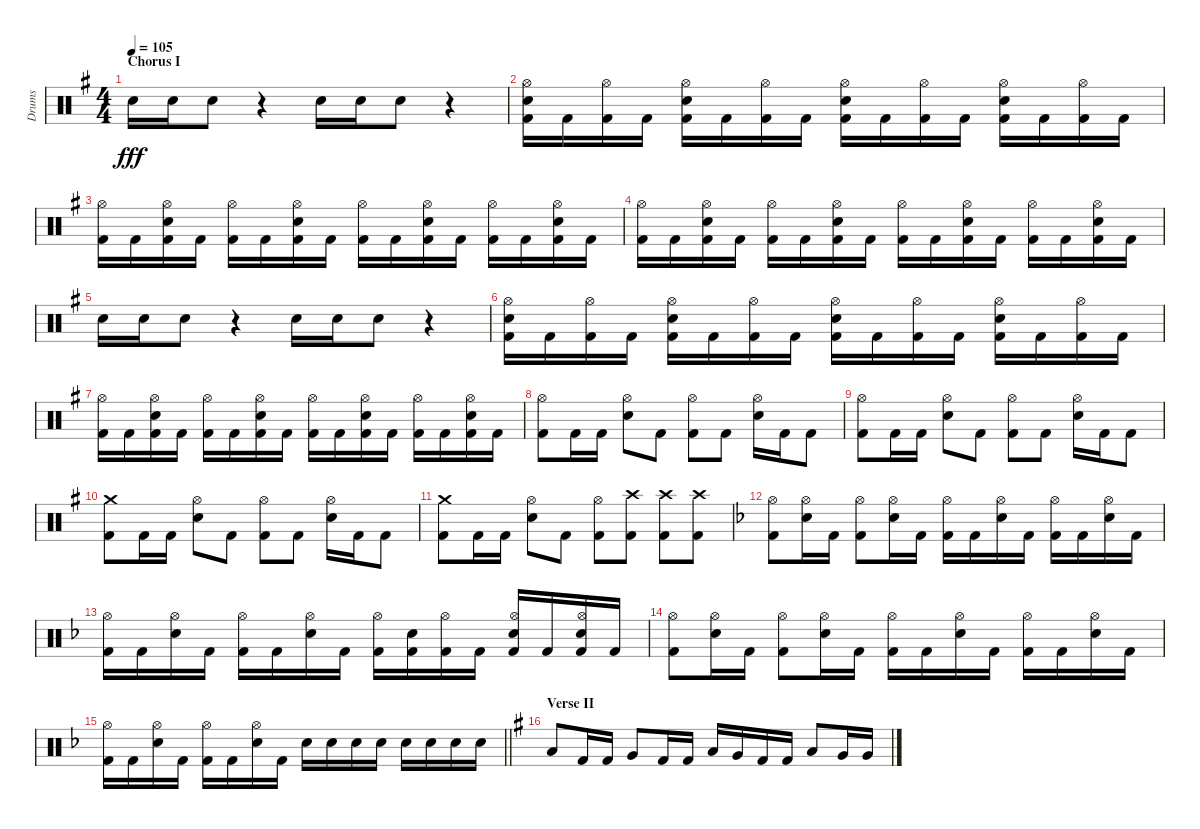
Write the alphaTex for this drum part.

\track ("Drums" "Drums") {instrument percussion}
\staff {score}
\articulation defaults
\ts (4 4)
\section ("" "Chorus I")
\tempo 105
\clef neutral
\ks eminor "Snare (hit) 2".16{dy fff} "Snare (hit) 2".16 "Snare (hit) 2".8
r.4 "Snare (hit) 2".16 "Snare (hit) 2".16 "Snare (hit) 2".8 r.4 |
("Hi-Hat (open)" "Snare (hit) 2" "Kick (hit) 2").16 "Kick (hit) 2".16 ("Hi-Hat (open)" "Kick (hit) 2").16 "Kick (hit) 2".16 ("Hi-Hat (open)" "Snare (hit) 2" "Kick (hit) 2").16 "Kick (hit) 2".16 ("Hi-Hat (open)" "Kick (hit) 2").16 "Kick (hit) 2".16 ("Hi-Hat (open)" "Snare (hit) 2" "Kick (hit) 2").16 "Kick (hit) 2".16 ("Hi-Hat (open)" "Kick (hit) 2").16 "Kick (hit) 2".16 ("Hi-Hat (open)" "Snare (hit) 2" "Kick (hit) 2").16 "Kick (hit) 2".16 ("Hi-Hat (open)" "Kick (hit) 2").16 "Kick (hit) 2".16 |
("Hi-Hat (open)" "Kick (hit) 2").16 "Kick (hit) 2".16 ("Hi-Hat (open)" "Snare (hit) 2" "Kick (hit) 2").16 "Kick (hit) 2".16 ("Hi-Hat (open)" "Kick (hit) 2").16 "Kick (hit) 2".16 ("Hi-Hat (open)" "Snare (hit) 2" "Kick (hit) 2").16 "Kick (hit) 2".16 ("Hi-Hat (open)" "Kick (hit) 2").16 "Kick (hit) 2".16 ("Hi-Hat (open)" "Snare (hit) 2" "Kick (hit) 2").16 "Kick (hit) 2".16 ("Hi-Hat (open)" "Kick (hit) 2").16 "Kick (hit) 2".16 ("Hi-Hat (open)" "Snare (hit) 2" "Kick (hit) 2").16 "Kick (hit) 2".16 |
("Hi-Hat (open)" "Kick (hit) 2").16 "Kick (hit) 2".16 ("Hi-Hat (open)" "Snare (hit) 2" "Kick (hit) 2").16 "Kick (hit) 2".16 ("Hi-Hat (open)" "Kick (hit) 2").16 "Kick (hit) 2".16 ("Hi-Hat (open)" "Snare (hit) 2" "Kick (hit) 2").16 "Kick (hit) 2".16 ("Hi-Hat (open)" "Kick (hit) 2").16 "Kick (hit) 2".16 ("Hi-Hat (open)" "Snare (hit) 2" "Kick (hit) 2").16 "Kick (hit) 2".16 ("Hi-Hat (open)" "Kick (hit) 2").16 "Kick (hit) 2".16 ("Hi-Hat (open)" "Snare (hit) 2" "Kick (hit) 2").16 "Kick (hit) 2".16 |
"Snare (hit) 2".16 "Snare (hit) 2".16 "Snare (hit) 2".8 r.4 "Snare (hit) 2".16 "Snare (hit) 2".16 "Snare (hit) 2".8 r.4 |
("Hi-Hat (open)" "Snare (hit) 2" "Kick (hit) 2").16 "Kick (hit) 2".16 ("Hi-Hat (open)" "Kick (hit) 2").16 "Kick (hit) 2".16 ("Hi-Hat (open)" "Snare (hit) 2" "Kick (hit) 2").16 "Kick (hit) 2".16 ("Hi-Hat (open)" "Kick (hit) 2").16 "Kick (hit) 2".16 ("Hi-Hat (open)" "Snare (hit) 2" "Kick (hit) 2").16 "Kick (hit) 2".16 ("Hi-Hat (open)" "Kick (hit) 2").16 "Kick (hit) 2".16 ("Hi-Hat (open)" "Snare (hit) 2" "Kick (hit) 2").16 "Kick (hit) 2".16 ("Hi-Hat (open)" "Kick (hit) 2").16 "Kick (hit) 2".16 |
("Hi-Hat (open)" "Kick (hit) 2").16 "Kick (hit) 2".16 ("Hi-Hat (open)" "Snare (hit) 2" "Kick (hit) 2").16 "Kick (hit) 2".16 ("Hi-Hat (open)" "Kick (hit) 2").16 "Kick (hit) 2".16 ("Hi-Hat (open)" "Snare (hit) 2" "Kick (hit) 2").16 "Kick (hit) 2".16 ("Hi-Hat (open)" "Kick (hit) 2").16 "Kick (hit) 2".16 ("Hi-Hat (open)" "Snare (hit) 2" "Kick (hit) 2").16 "Kick (hit) 2".16 ("Hi-Hat (open)" "Kick (hit) 2").16 "Kick (hit) 2".16 ("Hi-Hat (open)" "Snare (hit) 2" "Kick (hit) 2").16 "Kick (hit) 2".16 |
("Hi-Hat (open)" "Kick (hit) 2").8 "Kick (hit) 2".16 "Kick (hit) 2".16 ("Hi-Hat (open)" "Snare (hit) 2").8 "Kick (hit) 2".8 ("Hi-Hat (open)" "Kick (hit) 2").8 "Kick (hit) 2".8 ("Hi-Hat (open)" "Snare (hit) 2").16 "Kick (hit) 2".16 "Kick (hit) 2".8 |
("Hi-Hat (open)" "Kick (hit) 2").8 "Kick (hit) 2".16 "Kick (hit) 2".16 ("Hi-Hat (open)" "Snare (hit) 2").8 "Kick (hit) 2".8 ("Hi-Hat (open)" "Kick (hit) 2").8 "Kick (hit) 2".8 ("Hi-Hat (open)" "Snare (hit) 2").16 "Kick (hit) 2".16 "Kick (hit) 2".8 |
("Crash medium (hit)" "Kick (hit) 2").8 "Kick (hit) 2".16 "Kick (hit) 2".16 ("Hi-Hat (open)" "Snare (hit) 2").8 "Kick (hit) 2".8 ("Hi-Hat (open)" "Kick (hit) 2").8 "Kick (hit) 2".8 ("Hi-Hat (open)" "Snare (hit) 2").16 "Kick (hit) 2".16 "Kick (hit) 2".8 |
("Crash medium (hit)" "Kick (hit) 2").8 "Kick (hit) 2".16 "Kick (hit) 2".16 ("Hi-Hat (open)" "Snare (hit) 2").8 "Kick (hit) 2".8 ("Hi-Hat (open)" "Kick (hit) 2").8 ("Crash high (hit)" "Kick (hit) 2").8 ("Crash high (hit)" "Kick (hit) 2").8 ("Crash high (hit)" "Kick (hit) 2").8 |
\ks dminor
("Hi-Hat (open)" "Kick (hit) 2").8 ("Hi-Hat (open)" "Snare (hit) 2").16 "Kick (hit) 2".16 ("Hi-Hat (open)" "Kick (hit) 2").8 ("Hi-Hat (open)" "Snare (hit) 2").16 "Kick (hit) 2".16 ("Hi-Hat (open)" "Kick (hit) 2").16 "Kick (hit) 2".16 ("Hi-Hat (open)" "Snare (hit) 2").16 "Kick (hit) 2".16 ("Hi-Hat (open)" "Kick (hit) 2").16 "Kick (hit) 2".16 ("Hi-Hat (open)" "Snare (hit) 2").16 "Kick (hit) 2".16 |
("Hi-Hat (open)" "Kick (hit) 2").16 "Kick (hit) 2".16 ("Hi-Hat (open)" "Snare (hit) 2").16 "Kick (hit) 2".16 ("Hi-Hat (open)" "Kick (hit) 2").16 "Kick (hit) 2".16 ("Hi-Hat (open)" "Snare (hit) 2").16 "Kick (hit) 2".16 ("Hi-Hat (open)" "Kick (hit) 2").16 ("Snare (hit) 2" "Kick (hit) 2").16 ("Hi-Hat (open)" "Kick (hit) 2").16 "Kick (hit) 2".16 ("Hi-Hat (open)" "Snare (hit) 2" "Kick (hit) 2").16 "Kick (hit) 2".16 ("Hi-Hat (open)" "Snare (hit) 2" "Kick (hit) 2").16 "Kick (hit) 2".16 |
("Hi-Hat (open)" "Kick (hit) 2").8 ("Hi-Hat (open)" "Snare (hit) 2").16 "Kick (hit) 2".16 ("Hi-Hat (open)" "Kick (hit) 2").8 ("Hi-Hat (open)" "Snare (hit) 2").16 "Kick (hit) 2".16 ("Hi-Hat (open)" "Kick (hit) 2").16 "Kick (hit) 2".16 ("Hi-Hat (open)" "Snare (hit) 2").16 "Kick (hit) 2".16 ("Hi-Hat (open)" "Kick (hit) 2").16 "Kick (hit) 2".16 ("Hi-Hat (open)" "Snare (hit) 2").16 "Kick (hit) 2".16 |
\barLineRight lightlight
("Hi-Hat (open)" "Kick (hit) 2").16 "Kick (hit) 2".16 ("Hi-Hat (open)" "Snare (hit) 2").16 "Kick (hit) 2".16 ("Hi-Hat (open)" "Kick (hit) 2").16 "Kick (hit) 2".16 ("Hi-Hat (open)" "Snare (hit) 2").16 "Kick (hit) 2".16 "Snare (hit) 2".16 "Snare (hit) 2".16 "Snare (hit) 2".16 "Snare (hit) 2".16 "Snare (hit) 2".16 "Snare (hit) 2".16 "Snare (hit) 2".16 "Snare (hit) 2".16 |
\section ("" "Verse II")
\ks eminor "Low Tom (hit)".8 "Kick (hit) 2".16 "Kick (hit) 2".16 "Very Low Tom (hit)".8 "Kick (hit) 2".16 "Kick (hit) 2".16 "Low Tom (hit)".16 "Very Low Tom (hit)".16 "Kick (hit) 2".16 "Kick (hit) 2".16 "Low Tom (hit)".8 "Very Low Tom (hit)".16 "Very Low Tom (hit)".16
